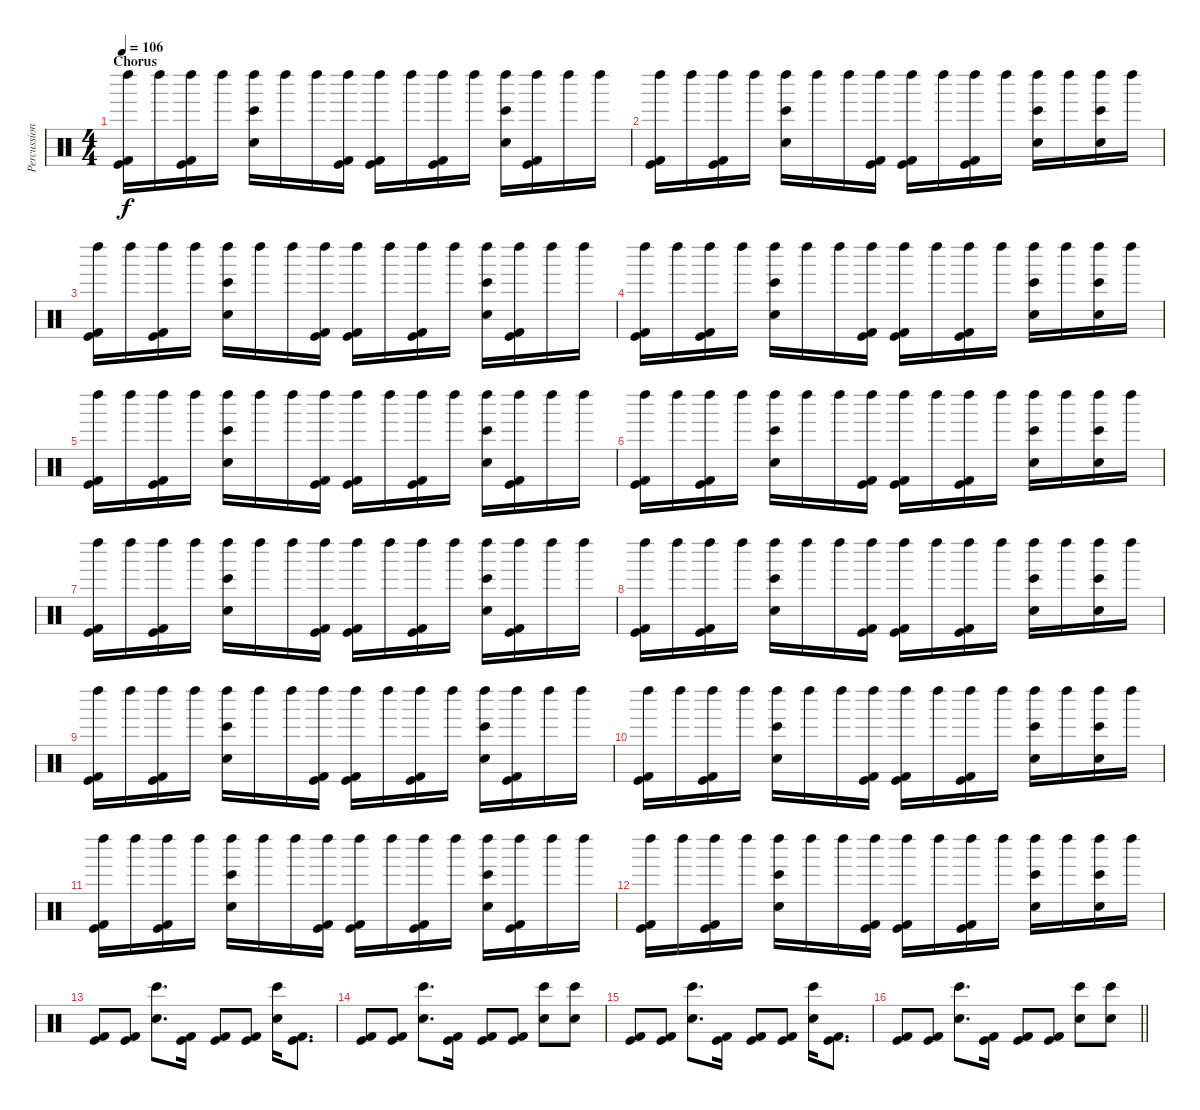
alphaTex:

\track ("Percussion" "Percussion") {instrument percussion}
\staff {score}
\articulation defaults
\ts (4 4)
\section ("" "Chorus")
\tempo 106
\clef neutral
\ks c
("Left Maraca (hit)" "Kick (hit)" "Kick (hit) 2").16{dy f} "Left Maraca (hit)".16 ("Left Maraca (hit)" "Kick (hit)" "Kick (hit) 2").16 "Left Maraca (hit)".16 ("Left Maraca (hit)" "Bongo High (hit)" "Hand Clap (hit)").16 "Left Maraca (hit)".16 "Left Maraca (hit)".16 ("Left Maraca (hit)" "Kick (hit)" "Kick (hit) 2").16 ("Left Maraca (hit)" "Kick (hit)" "Kick (hit) 2").16 "Left Maraca (hit)".16 ("Left Maraca (hit)" "Kick (hit)" "Kick (hit) 2").16 "Left Maraca (hit)".16 ("Left Maraca (hit)" "Bongo High (hit)" "Hand Clap (hit)").16 ("Left Maraca (hit)" "Kick (hit)" "Kick (hit) 2").16 "Left Maraca (hit)".16 "Left Maraca (hit)".16 |
("Left Maraca (hit)" "Kick (hit)" "Kick (hit) 2").16 "Left Maraca (hit)".16 ("Left Maraca (hit)" "Kick (hit)" "Kick (hit) 2").16 "Left Maraca (hit)".16 ("Left Maraca (hit)" "Bongo High (hit)" "Hand Clap (hit)").16 "Left Maraca (hit)".16 "Left Maraca (hit)".16 ("Left Maraca (hit)" "Kick (hit)" "Kick (hit) 2").16 ("Left Maraca (hit)" "Kick (hit)" "Kick (hit) 2").16 "Left Maraca (hit)".16 ("Left Maraca (hit)" "Kick (hit)" "Kick (hit) 2").16 "Left Maraca (hit)".16 ("Left Maraca (hit)" "Bongo High (hit)" "Hand Clap (hit)").16 "Left Maraca (hit)".16 ("Left Maraca (hit)" "Bongo High (hit)" "Hand Clap (hit)").16 "Left Maraca (hit)".16 |
("Left Maraca (hit)" "Kick (hit)" "Kick (hit) 2").16 "Left Maraca (hit)".16 ("Left Maraca (hit)" "Kick (hit)" "Kick (hit) 2").16 "Left Maraca (hit)".16 ("Left Maraca (hit)" "Bongo High (hit)" "Hand Clap (hit)").16 "Left Maraca (hit)".16 "Left Maraca (hit)".16 ("Left Maraca (hit)" "Kick (hit)" "Kick (hit) 2").16 ("Left Maraca (hit)" "Kick (hit)" "Kick (hit) 2").16 "Left Maraca (hit)".16 ("Left Maraca (hit)" "Kick (hit)" "Kick (hit) 2").16 "Left Maraca (hit)".16 ("Left Maraca (hit)" "Bongo High (hit)" "Hand Clap (hit)").16 ("Left Maraca (hit)" "Kick (hit)" "Kick (hit) 2").16 "Left Maraca (hit)".16 "Left Maraca (hit)".16 |
("Left Maraca (hit)" "Kick (hit)" "Kick (hit) 2").16 "Left Maraca (hit)".16 ("Left Maraca (hit)" "Kick (hit)" "Kick (hit) 2").16 "Left Maraca (hit)".16 ("Left Maraca (hit)" "Bongo High (hit)" "Hand Clap (hit)").16 "Left Maraca (hit)".16 "Left Maraca (hit)".16 ("Left Maraca (hit)" "Kick (hit)" "Kick (hit) 2").16 ("Left Maraca (hit)" "Kick (hit)" "Kick (hit) 2").16 "Left Maraca (hit)".16 ("Left Maraca (hit)" "Kick (hit)" "Kick (hit) 2").16 "Left Maraca (hit)".16 ("Left Maraca (hit)" "Bongo High (hit)" "Hand Clap (hit)").16 "Left Maraca (hit)".16 ("Left Maraca (hit)" "Bongo High (hit)" "Hand Clap (hit)").16 "Left Maraca (hit)".16 |
("Left Maraca (hit)" "Kick (hit)" "Kick (hit) 2").16 "Left Maraca (hit)".16 ("Left Maraca (hit)" "Kick (hit)" "Kick (hit) 2").16 "Left Maraca (hit)".16 ("Left Maraca (hit)" "Bongo High (hit)" "Hand Clap (hit)").16 "Left Maraca (hit)".16 "Left Maraca (hit)".16 ("Left Maraca (hit)" "Kick (hit)" "Kick (hit) 2").16 ("Left Maraca (hit)" "Kick (hit)" "Kick (hit) 2").16 "Left Maraca (hit)".16 ("Left Maraca (hit)" "Kick (hit)" "Kick (hit) 2").16 "Left Maraca (hit)".16 ("Left Maraca (hit)" "Bongo High (hit)" "Hand Clap (hit)").16 ("Left Maraca (hit)" "Kick (hit)" "Kick (hit) 2").16 "Left Maraca (hit)".16 "Left Maraca (hit)".16 |
("Left Maraca (hit)" "Kick (hit)" "Kick (hit) 2").16 "Left Maraca (hit)".16 ("Left Maraca (hit)" "Kick (hit)" "Kick (hit) 2").16 "Left Maraca (hit)".16 ("Left Maraca (hit)" "Bongo High (hit)" "Hand Clap (hit)").16 "Left Maraca (hit)".16 "Left Maraca (hit)".16 ("Left Maraca (hit)" "Kick (hit)" "Kick (hit) 2").16 ("Left Maraca (hit)" "Kick (hit)" "Kick (hit) 2").16 "Left Maraca (hit)".16 ("Left Maraca (hit)" "Kick (hit)" "Kick (hit) 2").16 "Left Maraca (hit)".16 ("Left Maraca (hit)" "Bongo High (hit)" "Hand Clap (hit)").16 "Left Maraca (hit)".16 ("Left Maraca (hit)" "Bongo High (hit)" "Hand Clap (hit)").16 "Left Maraca (hit)".16 |
("Left Maraca (hit)" "Kick (hit)" "Kick (hit) 2").16 "Left Maraca (hit)".16 ("Left Maraca (hit)" "Kick (hit)" "Kick (hit) 2").16 "Left Maraca (hit)".16 ("Left Maraca (hit)" "Bongo High (hit)" "Hand Clap (hit)").16 "Left Maraca (hit)".16 "Left Maraca (hit)".16 ("Left Maraca (hit)" "Kick (hit)" "Kick (hit) 2").16 ("Left Maraca (hit)" "Kick (hit)" "Kick (hit) 2").16 "Left Maraca (hit)".16 ("Left Maraca (hit)" "Kick (hit)" "Kick (hit) 2").16 "Left Maraca (hit)".16 ("Left Maraca (hit)" "Bongo High (hit)" "Hand Clap (hit)").16 ("Left Maraca (hit)" "Kick (hit)" "Kick (hit) 2").16 "Left Maraca (hit)".16 "Left Maraca (hit)".16 |
("Left Maraca (hit)" "Kick (hit)" "Kick (hit) 2").16 "Left Maraca (hit)".16 ("Left Maraca (hit)" "Kick (hit)" "Kick (hit) 2").16 "Left Maraca (hit)".16 ("Left Maraca (hit)" "Bongo High (hit)" "Hand Clap (hit)").16 "Left Maraca (hit)".16 "Left Maraca (hit)".16 ("Left Maraca (hit)" "Kick (hit)" "Kick (hit) 2").16 ("Left Maraca (hit)" "Kick (hit)" "Kick (hit) 2").16 "Left Maraca (hit)".16 ("Left Maraca (hit)" "Kick (hit)" "Kick (hit) 2").16 "Left Maraca (hit)".16 ("Left Maraca (hit)" "Bongo High (hit)" "Hand Clap (hit)").16 "Left Maraca (hit)".16 ("Left Maraca (hit)" "Bongo High (hit)" "Hand Clap (hit)").16 "Left Maraca (hit)".16 |
("Left Maraca (hit)" "Kick (hit)" "Kick (hit) 2").16 "Left Maraca (hit)".16 ("Left Maraca (hit)" "Kick (hit)" "Kick (hit) 2").16 "Left Maraca (hit)".16 ("Left Maraca (hit)" "Bongo High (hit)" "Hand Clap (hit)").16 "Left Maraca (hit)".16 "Left Maraca (hit)".16 ("Left Maraca (hit)" "Kick (hit)" "Kick (hit) 2").16 ("Left Maraca (hit)" "Kick (hit)" "Kick (hit) 2").16 "Left Maraca (hit)".16 ("Left Maraca (hit)" "Kick (hit)" "Kick (hit) 2").16 "Left Maraca (hit)".16 ("Left Maraca (hit)" "Bongo High (hit)" "Hand Clap (hit)").16 ("Left Maraca (hit)" "Kick (hit)" "Kick (hit) 2").16 "Left Maraca (hit)".16 "Left Maraca (hit)".16 |
("Left Maraca (hit)" "Kick (hit)" "Kick (hit) 2").16 "Left Maraca (hit)".16 ("Left Maraca (hit)" "Kick (hit)" "Kick (hit) 2").16 "Left Maraca (hit)".16 ("Left Maraca (hit)" "Bongo High (hit)" "Hand Clap (hit)").16 "Left Maraca (hit)".16 "Left Maraca (hit)".16 ("Left Maraca (hit)" "Kick (hit)" "Kick (hit) 2").16 ("Left Maraca (hit)" "Kick (hit)" "Kick (hit) 2").16 "Left Maraca (hit)".16 ("Left Maraca (hit)" "Kick (hit)" "Kick (hit) 2").16 "Left Maraca (hit)".16 ("Left Maraca (hit)" "Bongo High (hit)" "Hand Clap (hit)").16 "Left Maraca (hit)".16 ("Left Maraca (hit)" "Bongo High (hit)" "Hand Clap (hit)").16 "Left Maraca (hit)".16 |
("Left Maraca (hit)" "Kick (hit)" "Kick (hit) 2").16 "Left Maraca (hit)".16 ("Left Maraca (hit)" "Kick (hit)" "Kick (hit) 2").16 "Left Maraca (hit)".16 ("Left Maraca (hit)" "Bongo High (hit)" "Hand Clap (hit)").16 "Left Maraca (hit)".16 "Left Maraca (hit)".16 ("Left Maraca (hit)" "Kick (hit)" "Kick (hit) 2").16 ("Left Maraca (hit)" "Kick (hit)" "Kick (hit) 2").16 "Left Maraca (hit)".16 ("Left Maraca (hit)" "Kick (hit)" "Kick (hit) 2").16 "Left Maraca (hit)".16 ("Left Maraca (hit)" "Bongo High (hit)" "Hand Clap (hit)").16 ("Left Maraca (hit)" "Kick (hit)" "Kick (hit) 2").16 "Left Maraca (hit)".16 "Left Maraca (hit)".16 |
("Left Maraca (hit)" "Kick (hit)" "Kick (hit) 2").16 "Left Maraca (hit)".16 ("Left Maraca (hit)" "Kick (hit)" "Kick (hit) 2").16 "Left Maraca (hit)".16 ("Left Maraca (hit)" "Bongo High (hit)" "Hand Clap (hit)").16 "Left Maraca (hit)".16 "Left Maraca (hit)".16 ("Left Maraca (hit)" "Kick (hit)" "Kick (hit) 2").16 ("Left Maraca (hit)" "Kick (hit)" "Kick (hit) 2").16 "Left Maraca (hit)".16 ("Left Maraca (hit)" "Kick (hit)" "Kick (hit) 2").16 "Left Maraca (hit)".16 ("Left Maraca (hit)" "Bongo High (hit)" "Hand Clap (hit)").16 "Left Maraca (hit)".16 ("Left Maraca (hit)" "Bongo High (hit)" "Hand Clap (hit)").16 "Left Maraca (hit)".16 |
("Kick (hit)" "Kick (hit) 2").8 ("Kick (hit)" "Kick (hit) 2").8 ("Bongo High (hit)" "Hand Clap (hit)").8{d} ("Kick (hit)" "Kick (hit) 2").16 ("Kick (hit)" "Kick (hit) 2").8 ("Kick (hit)" "Kick (hit) 2").8 ("Bongo High (hit)" "Hand Clap (hit)").16 ("Kick (hit)" "Kick (hit) 2").8{d} |
("Kick (hit)" "Kick (hit) 2").8 ("Kick (hit)" "Kick (hit) 2").8 ("Bongo High (hit)" "Hand Clap (hit)").8{d} ("Kick (hit)" "Kick (hit) 2").16 ("Kick (hit)" "Kick (hit) 2").8 ("Kick (hit)" "Kick (hit) 2").8 ("Bongo High (hit)" "Hand Clap (hit)").8 ("Bongo High (hit)" "Hand Clap (hit)").8 |
("Kick (hit)" "Kick (hit) 2").8 ("Kick (hit)" "Kick (hit) 2").8 ("Bongo High (hit)" "Hand Clap (hit)").8{d} ("Kick (hit)" "Kick (hit) 2").16 ("Kick (hit)" "Kick (hit) 2").8 ("Kick (hit)" "Kick (hit) 2").8 ("Bongo High (hit)" "Hand Clap (hit)").16 ("Kick (hit)" "Kick (hit) 2").8{d} |
\barLineRight lightlight
("Kick (hit)" "Kick (hit) 2").8 ("Kick (hit)" "Kick (hit) 2").8 ("Bongo High (hit)" "Hand Clap (hit)").8{d} ("Kick (hit)" "Kick (hit) 2").16 ("Kick (hit)" "Kick (hit) 2").8 ("Kick (hit)" "Kick (hit) 2").8 ("Bongo High (hit)" "Hand Clap (hit)").8 ("Bongo High (hit)" "Hand Clap (hit)").8
